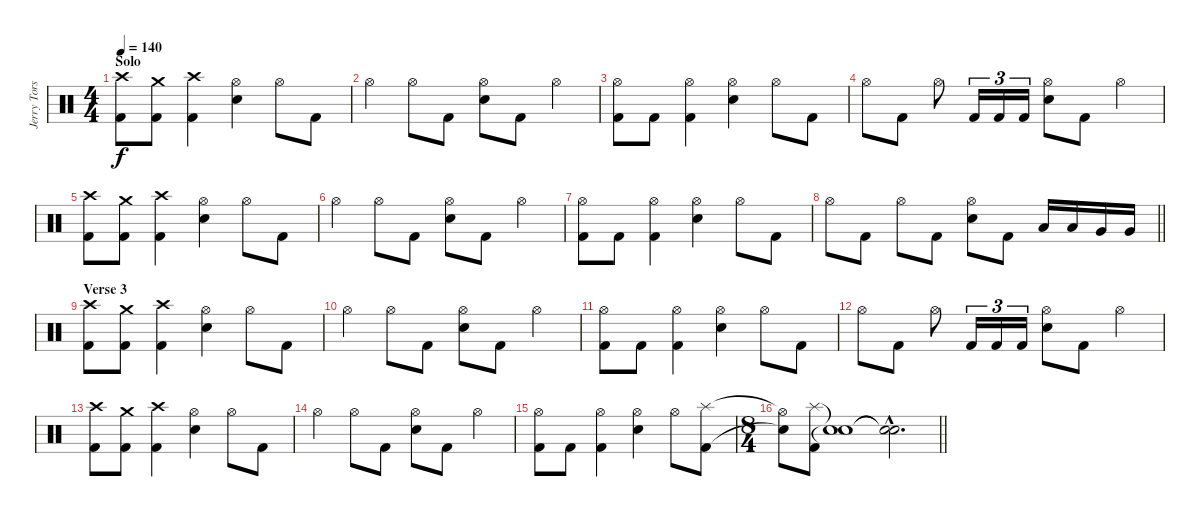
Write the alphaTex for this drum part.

\track ("Jerry Torstensson" "Jerry Tors") {instrument percussion}
\staff {score}
\articulation defaults
\ts (4 4)
\section ("" "Solo")
\tempo 140
\clef neutral
\ks c
("Crash high (hit)" "Kick (hit) 2").8{dy f} ("Crash medium (hit)" "Kick (hit) 2").8 ("Crash high (hit)" "Kick (hit) 2").4 ("Hi-Hat (open)" "Snare (hit) 2").4 "Hi-Hat (open)".8 "Kick (hit) 2".8 |
"Hi-Hat (open)".4 "Hi-Hat (open)".8 "Kick (hit) 2".8 ("Hi-Hat (open)" "Snare (hit) 2").8 "Kick (hit) 2".8 "Hi-Hat (open)".4 |
("Hi-Hat (open)" "Kick (hit) 2").8 "Kick (hit) 2".8 ("Hi-Hat (open)" "Kick (hit) 2").4 ("Hi-Hat (open)" "Snare (hit) 2").4 "Hi-Hat (open)".8 "Kick (hit) 2".8 |
"Hi-Hat (open)".8 "Kick (hit) 2".8 "Hi-Hat (open)".8 "Kick (hit) 2".16{tu (3 2)} "Kick (hit) 2".16{tu (3 2)} "Kick (hit) 2".16{tu (3 2)} ("Hi-Hat (open)" "Snare (hit) 2").8 "Kick (hit) 2".8 "Hi-Hat (open)".4 |
("Crash high (hit)" "Kick (hit) 2").8 ("Crash medium (hit)" "Kick (hit) 2").8 ("Crash high (hit)" "Kick (hit) 2").4 ("Hi-Hat (open)" "Snare (hit) 2").4 "Hi-Hat (open)".8 "Kick (hit) 2".8 |
"Hi-Hat (open)".4 "Hi-Hat (open)".8 "Kick (hit) 2".8 ("Hi-Hat (open)" "Snare (hit) 2").8 "Kick (hit) 2".8 "Hi-Hat (open)".4 |
("Hi-Hat (open)" "Kick (hit) 2").8 "Kick (hit) 2".8 ("Hi-Hat (open)" "Kick (hit) 2").4 ("Hi-Hat (open)" "Snare (hit) 2").4 "Hi-Hat (open)".8 "Kick (hit) 2".8 |
\barLineRight lightlight "Hi-Hat (open)".8 "Kick (hit) 2".8 "Hi-Hat (open)".8 "Kick (hit) 2".8
("Hi-Hat (open)" "Snare (hit) 2").8 "Kick (hit) 2".8 "Low Tom (hit)".16 "Low Tom (hit)".16 "Very Low Tom (hit)".16 "Very Low Tom (hit)".16 |
\section ("" "Verse 3")
("Crash high (hit)" "Kick (hit) 2").8 ("Crash medium (hit)" "Kick (hit) 2").8 ("Crash high (hit)" "Kick (hit) 2").4 ("Hi-Hat (open)" "Snare (hit) 2").4 "Hi-Hat (open)".8 "Kick (hit) 2".8 |
"Hi-Hat (open)".4 "Hi-Hat (open)".8 "Kick (hit) 2".8 ("Hi-Hat (open)" "Snare (hit) 2").8 "Kick (hit) 2".8 "Hi-Hat (open)".4 |
("Hi-Hat (open)" "Kick (hit) 2").8 "Kick (hit) 2".8 ("Hi-Hat (open)" "Kick (hit) 2").4 ("Hi-Hat (open)" "Snare (hit) 2").4 "Hi-Hat (open)".8 "Kick (hit) 2".8 |
"Hi-Hat (open)".8 "Kick (hit) 2".8 "Hi-Hat (open)".8 "Kick (hit) 2".16{tu (3 2)} "Kick (hit) 2".16{tu (3 2)} "Kick (hit) 2".16{tu (3 2)} ("Hi-Hat (open)" "Snare (hit) 2").8 "Kick (hit) 2".8 "Hi-Hat (open)".4 |
("Crash high (hit)" "Kick (hit) 2").8 ("Crash medium (hit)" "Kick (hit) 2").8 ("Crash high (hit)" "Kick (hit) 2").4 ("Hi-Hat (open)" "Snare (hit) 2").4 "Hi-Hat (open)".8 "Kick (hit) 2".8 |
"Hi-Hat (open)".4 "Hi-Hat (open)".8 "Kick (hit) 2".8 ("Hi-Hat (open)" "Snare (hit) 2").8 "Kick (hit) 2".8 "Hi-Hat (open)".4 |
("Hi-Hat (open)" "Kick (hit) 2").8 "Kick (hit) 2".8 ("Hi-Hat (open)" "Kick (hit) 2").4 ("Hi-Hat (open)" "Snare (hit) 2").4 "Hi-Hat (open)".8 ("Splash (hit)" "Kick (hit) 2").8 |
\ts (8 4)
\barLineRight lightlight
("Hi-Hat (open)"{t} "Snare (hit)"{t}).8 ("Splash (hit)" "Kick (hit) 2").8{volume 5} ("Snare (hit)"{t} "Snare (hit)"{t}).1 ("Snare (hit)"{hac t} "Snare (hit)"{hac t}).2{d}
